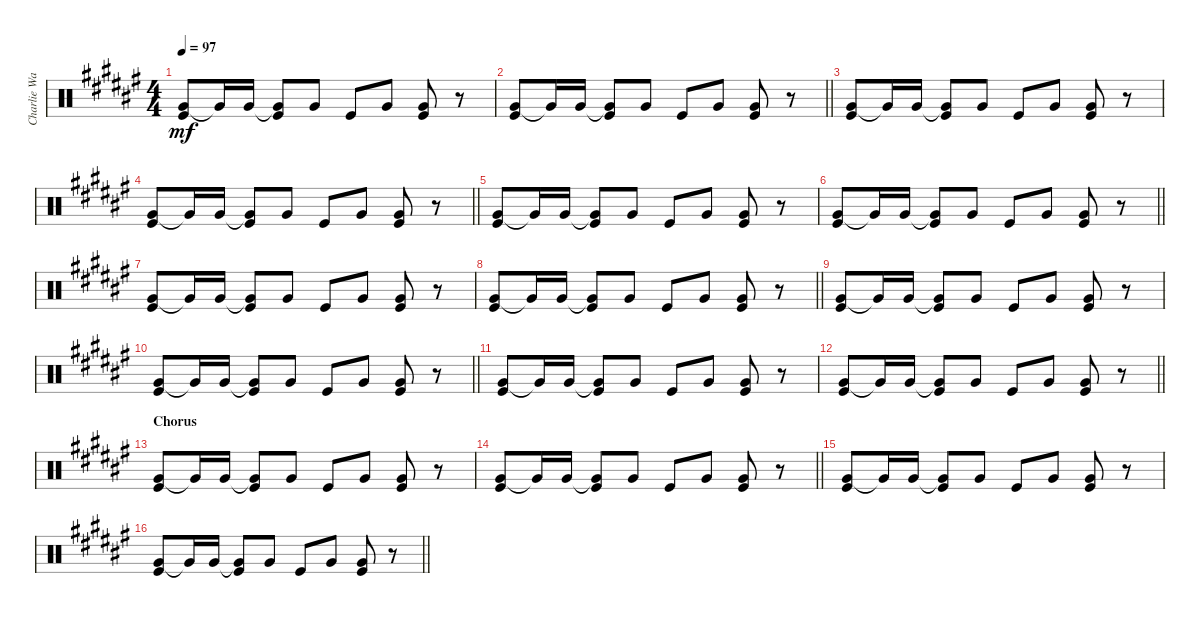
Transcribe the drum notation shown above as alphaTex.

\track ("Charlie Watts" "Charlie Wa") {instrument percussion}
\staff {score}
\articulation defaults
\ts (4 4)
\tempo 97
\clef neutral
\ks f#
("Very Low Tom (hit)" "Kick (hit)").8{dy mf} "Very Low Tom (hit)"{t}.16 "Very Low Tom (hit)".16 ("Very Low Tom (hit)"{t} "Kick (hit)").8 "Very Low Tom (hit)".8 "Kick (hit)".8 "Very Low Tom (hit)".8 ("Very Low Tom (hit)" "Kick (hit)").8 r.8 |
\barLineRight lightlight
("Very Low Tom (hit)" "Kick (hit)").8 "Very Low Tom (hit)"{t}.16 "Very Low Tom (hit)".16 ("Very Low Tom (hit)"{t} "Kick (hit)").8 "Very Low Tom (hit)".8 "Kick (hit)".8 "Very Low Tom (hit)".8 ("Very Low Tom (hit)" "Kick (hit)").8 r.8 |
("Very Low Tom (hit)" "Kick (hit)").8 "Very Low Tom (hit)"{t}.16 "Very Low Tom (hit)".16 ("Very Low Tom (hit)"{t} "Kick (hit)").8 "Very Low Tom (hit)".8 "Kick (hit)".8 "Very Low Tom (hit)".8 ("Very Low Tom (hit)" "Kick (hit)").8 r.8 |
\barLineRight lightlight
("Very Low Tom (hit)" "Kick (hit)").8 "Very Low Tom (hit)"{t}.16 "Very Low Tom (hit)".16 ("Very Low Tom (hit)"{t} "Kick (hit)").8 "Very Low Tom (hit)".8 "Kick (hit)".8 "Very Low Tom (hit)".8 ("Very Low Tom (hit)" "Kick (hit)").8 r.8 |
("Very Low Tom (hit)" "Kick (hit)").8 "Very Low Tom (hit)"{t}.16 "Very Low Tom (hit)".16 ("Very Low Tom (hit)"{t} "Kick (hit)").8 "Very Low Tom (hit)".8 "Kick (hit)".8 "Very Low Tom (hit)".8 ("Very Low Tom (hit)" "Kick (hit)").8 r.8 |
\barLineRight lightlight
("Very Low Tom (hit)" "Kick (hit)").8 "Very Low Tom (hit)"{t}.16 "Very Low Tom (hit)".16 ("Very Low Tom (hit)"{t} "Kick (hit)").8 "Very Low Tom (hit)".8 "Kick (hit)".8 "Very Low Tom (hit)".8 ("Very Low Tom (hit)" "Kick (hit)").8 r.8 |
("Very Low Tom (hit)" "Kick (hit)").8 "Very Low Tom (hit)"{t}.16 "Very Low Tom (hit)".16 ("Very Low Tom (hit)"{t} "Kick (hit)").8 "Very Low Tom (hit)".8 "Kick (hit)".8 "Very Low Tom (hit)".8 ("Very Low Tom (hit)" "Kick (hit)").8 r.8 |
\barLineRight lightlight
("Very Low Tom (hit)" "Kick (hit)").8 "Very Low Tom (hit)"{t}.16 "Very Low Tom (hit)".16 ("Very Low Tom (hit)"{t} "Kick (hit)").8 "Very Low Tom (hit)".8 "Kick (hit)".8 "Very Low Tom (hit)".8 ("Very Low Tom (hit)" "Kick (hit)").8 r.8 |
("Very Low Tom (hit)" "Kick (hit)").8 "Very Low Tom (hit)"{t}.16 "Very Low Tom (hit)".16 ("Very Low Tom (hit)"{t} "Kick (hit)").8 "Very Low Tom (hit)".8 "Kick (hit)".8 "Very Low Tom (hit)".8 ("Very Low Tom (hit)" "Kick (hit)").8 r.8 |
\barLineRight lightlight
("Very Low Tom (hit)" "Kick (hit)").8 "Very Low Tom (hit)"{t}.16 "Very Low Tom (hit)".16 ("Very Low Tom (hit)"{t} "Kick (hit)").8 "Very Low Tom (hit)".8 "Kick (hit)".8 "Very Low Tom (hit)".8 ("Very Low Tom (hit)" "Kick (hit)").8 r.8 |
("Very Low Tom (hit)" "Kick (hit)").8 "Very Low Tom (hit)"{t}.16 "Very Low Tom (hit)".16 ("Very Low Tom (hit)"{t} "Kick (hit)").8 "Very Low Tom (hit)".8 "Kick (hit)".8 "Very Low Tom (hit)".8 ("Very Low Tom (hit)" "Kick (hit)").8 r.8 |
\barLineRight lightlight
("Very Low Tom (hit)" "Kick (hit)").8 "Very Low Tom (hit)"{t}.16 "Very Low Tom (hit)".16 ("Very Low Tom (hit)"{t} "Kick (hit)").8 "Very Low Tom (hit)".8 "Kick (hit)".8 "Very Low Tom (hit)".8 ("Very Low Tom (hit)" "Kick (hit)").8 r.8 |
\section ("" "Chorus")
("Very Low Tom (hit)" "Kick (hit)").8 "Very Low Tom (hit)"{t}.16 "Very Low Tom (hit)".16 ("Very Low Tom (hit)"{t} "Kick (hit)").8 "Very Low Tom (hit)".8 "Kick (hit)".8 "Very Low Tom (hit)".8 ("Very Low Tom (hit)" "Kick (hit)").8 r.8 |
\barLineRight lightlight
("Very Low Tom (hit)" "Kick (hit)").8 "Very Low Tom (hit)"{t}.16 "Very Low Tom (hit)".16 ("Very Low Tom (hit)"{t} "Kick (hit)").8 "Very Low Tom (hit)".8 "Kick (hit)".8 "Very Low Tom (hit)".8 ("Very Low Tom (hit)" "Kick (hit)").8 r.8 |
("Very Low Tom (hit)" "Kick (hit)").8 "Very Low Tom (hit)"{t}.16 "Very Low Tom (hit)".16 ("Very Low Tom (hit)"{t} "Kick (hit)").8 "Very Low Tom (hit)".8 "Kick (hit)".8 "Very Low Tom (hit)".8 ("Very Low Tom (hit)" "Kick (hit)").8 r.8 |
\barLineRight lightlight
("Very Low Tom (hit)" "Kick (hit)").8 "Very Low Tom (hit)"{t}.16 "Very Low Tom (hit)".16 ("Very Low Tom (hit)"{t} "Kick (hit)").8 "Very Low Tom (hit)".8 "Kick (hit)".8 "Very Low Tom (hit)".8 ("Very Low Tom (hit)" "Kick (hit)").8 r.8
